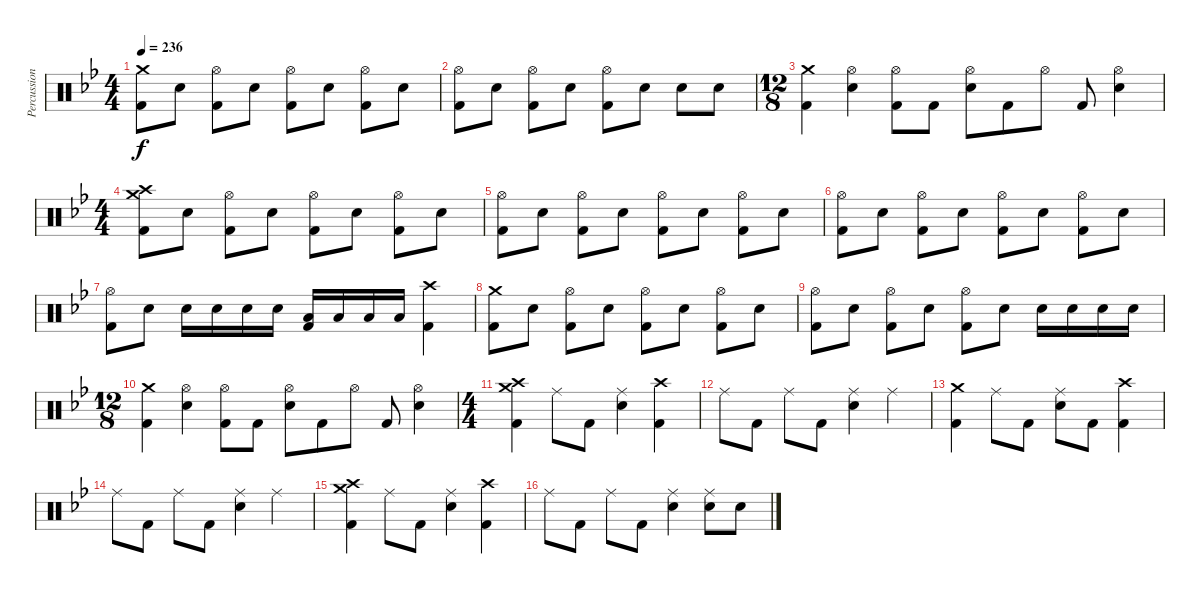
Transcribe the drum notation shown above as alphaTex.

\track ("Percussion" "Percussion") {instrument percussion}
\staff {score}
\articulation defaults
\ts (4 4)
\tempo 236
\clef neutral
\ks bb
("Crash medium (hit)" "Kick (hit) 2").8{dy f} "Electric Snare (hit)".8 ("Hi-Hat (open)" "Kick (hit) 2").8 "Electric Snare (hit)".8 ("Hi-Hat (open)" "Kick (hit) 2").8 "Electric Snare (hit)".8 ("Hi-Hat (open)" "Kick (hit) 2").8 "Electric Snare (hit)".8 |
("Hi-Hat (open)" "Kick (hit) 2").8 "Electric Snare (hit)".8 ("Hi-Hat (open)" "Kick (hit) 2").8 "Electric Snare (hit)".8 ("Hi-Hat (open)" "Kick (hit) 2").8 "Electric Snare (hit)".8 "Electric Snare (hit)".8 "Electric Snare (hit)".8 |
\ts (12 8)
("Crash medium (hit)" "Kick (hit) 2").4 ("Hi-Hat (open)" "Electric Snare (hit)").4 ("Hi-Hat (open)" "Kick (hit) 2").8 "Kick (hit) 2".8 ("Hi-Hat (open)" "Electric Snare (hit)").8 "Kick (hit) 2".8 "Hi-Hat (open)".8 "Kick (hit) 2".8 ("Hi-Hat (open)" "Electric Snare (hit)").4 |
\ts (4 4)
("Crash medium (hit)" "Crash high (hit)" "Kick (hit) 2").8 "Electric Snare (hit)".8 ("Hi-Hat (open)" "Kick (hit) 2").8 "Electric Snare (hit)".8 ("Hi-Hat (open)" "Kick (hit) 2").8 "Electric Snare (hit)".8 ("Hi-Hat (open)" "Kick (hit) 2").8 "Electric Snare (hit)".8 |
("Hi-Hat (open)" "Kick (hit) 2").8 "Electric Snare (hit)".8 ("Hi-Hat (open)" "Kick (hit) 2").8 "Electric Snare (hit)".8 ("Hi-Hat (open)" "Kick (hit) 2").8 "Electric Snare (hit)".8 ("Hi-Hat (open)" "Kick (hit) 2").8 "Electric Snare (hit)".8 |
("Hi-Hat (open)" "Kick (hit) 2").8 "Electric Snare (hit)".8 ("Hi-Hat (open)" "Kick (hit) 2").8 "Electric Snare (hit)".8 ("Hi-Hat (open)" "Kick (hit) 2").8 "Electric Snare (hit)".8 ("Hi-Hat (open)" "Kick (hit) 2").8 "Electric Snare (hit)".8 |
("Hi-Hat (open)" "Kick (hit) 2").8 "Electric Snare (hit)".8 "Electric Snare (hit)".16 "Electric Snare (hit)".16 "Electric Snare (hit)".16 "Electric Snare (hit)".16 ("Low Tom (hit)" "Kick (hit) 2").16 "Low Tom (hit)".16 "Low Tom (hit)".16 "Low Tom (hit)".16 ("Crash high (hit)" "Kick (hit) 2").4 |
("Crash medium (hit)" "Kick (hit) 2").8 "Electric Snare (hit)".8 ("Hi-Hat (open)" "Kick (hit) 2").8 "Electric Snare (hit)".8 ("Hi-Hat (open)" "Kick (hit) 2").8 "Electric Snare (hit)".8 ("Hi-Hat (open)" "Kick (hit) 2").8 "Electric Snare (hit)".8 |
("Hi-Hat (open)" "Kick (hit) 2").8 "Electric Snare (hit)".8 ("Hi-Hat (open)" "Kick (hit) 2").8 "Electric Snare (hit)".8 ("Hi-Hat (open)" "Kick (hit) 2").8 "Electric Snare (hit)".8 "Electric Snare (hit)".16 "Electric Snare (hit)".16 "Electric Snare (hit)".16 "Electric Snare (hit)".16 |
\ts (12 8)
("Crash medium (hit)" "Kick (hit) 2").4 ("Hi-Hat (open)" "Electric Snare (hit)").4 ("Hi-Hat (open)" "Kick (hit) 2").8 "Kick (hit) 2".8 ("Hi-Hat (open)" "Electric Snare (hit)").8 "Kick (hit) 2".8 "Hi-Hat (open)".8 "Kick (hit) 2".8 ("Hi-Hat (open)" "Electric Snare (hit)").4 |
\ts (4 4)
("Crash medium (hit)" "Crash high (hit)" "Kick (hit) 2").4 "Ride (middle)".8 "Kick (hit) 2".8 ("Ride (middle)" "Electric Snare (hit)").4 ("Crash high (hit)" "Kick (hit) 2").4 |
"Ride (middle)".8 "Kick (hit) 2".8 "Ride (middle)".8 "Kick (hit) 2".8 ("Ride (middle)" "Electric Snare (hit)").4 "Ride (middle)".4 |
("Crash medium (hit)" "Kick (hit) 2").4 "Ride (middle)".8 "Kick (hit) 2".8 ("Ride (middle)" "Electric Snare (hit)").8 "Kick (hit) 2".8 ("Crash high (hit)" "Kick (hit) 2").4 |
"Ride (middle)".8 "Kick (hit) 2".8 "Ride (middle)".8 "Kick (hit) 2".8 ("Ride (middle)" "Electric Snare (hit)").4 "Ride (middle)".4 |
("Crash medium (hit)" "Crash high (hit)" "Kick (hit) 2").4 "Ride (middle)".8 "Kick (hit) 2".8 ("Ride (middle)" "Electric Snare (hit)").4 ("Crash high (hit)" "Kick (hit) 2").4 |
"Ride (middle)".8 "Kick (hit) 2".8 "Ride (middle)".8 "Kick (hit) 2".8 ("Ride (middle)" "Electric Snare (hit)").4 ("Ride (middle)" "Electric Snare (hit)").8 "Electric Snare (hit)".8
